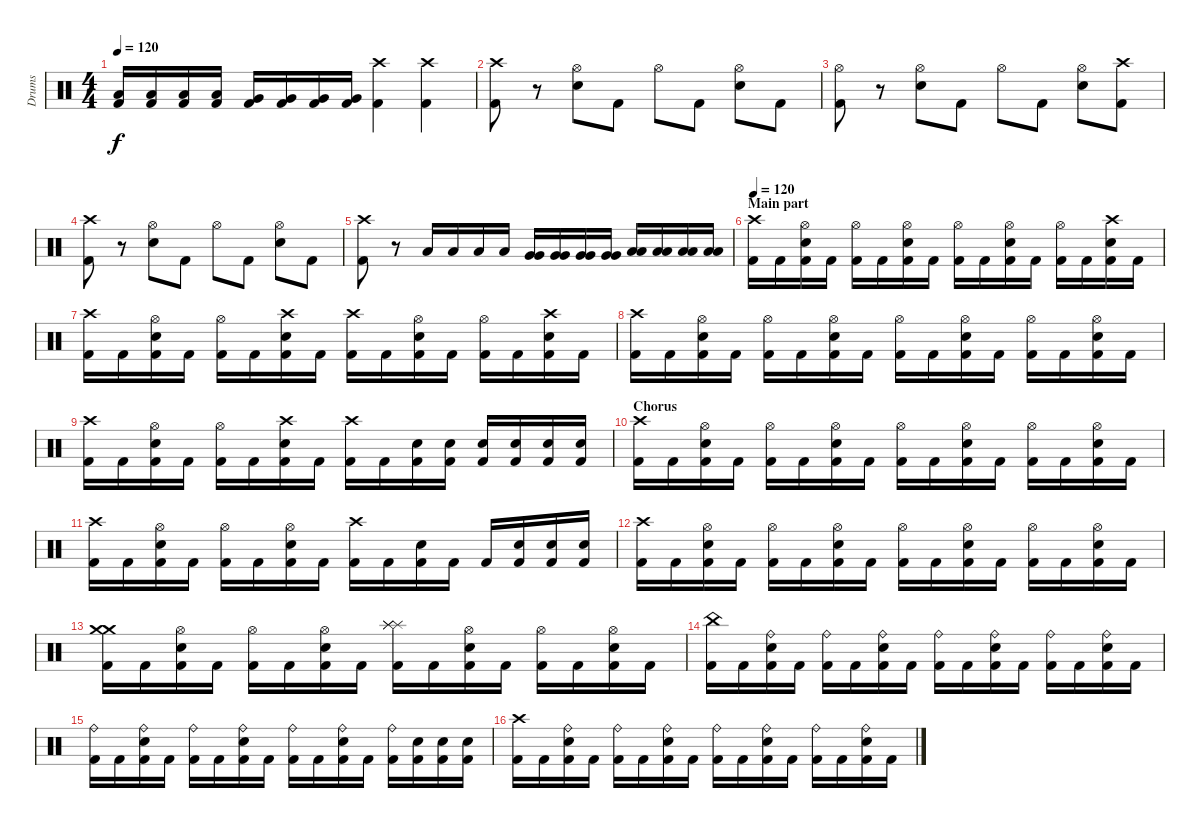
\track ("Drums" "Drums") {instrument percussion}
\staff {score}
\articulation defaults
\ts (4 4)
\tempo 120
\clef neutral
\ks c
("Low Tom (hit)" "Kick (hit) 2").16{dy f} ("Low Tom (hit)" "Kick (hit) 2").16 ("Low Tom (hit)" "Kick (hit) 2").16 ("Low Tom (hit)" "Kick (hit) 2").16 ("Very Low Tom (hit)" "Kick (hit) 2").16 ("Very Low Tom (hit)" "Kick (hit) 2").16 ("Very Low Tom (hit)" "Kick (hit) 2").16 ("Very Low Tom (hit)" "Kick (hit) 2").16 ("Crash high (hit)" "Kick (hit) 2").4 ("Crash high (hit)" "Kick (hit) 2").4 |
("Crash high (hit)" "Kick (hit) 2").8 r.8 ("Hi-Hat (open)" "Electric Snare (hit)").8 "Kick (hit) 2".8 "Hi-Hat (open)".8 "Kick (hit) 2".8 ("Hi-Hat (open)" "Electric Snare (hit)").8 "Kick (hit) 2".8 |
("Hi-Hat (open)" "Kick (hit) 2").8 r.8 ("Hi-Hat (open)" "Electric Snare (hit)").8 "Kick (hit) 2".8 "Hi-Hat (open)".8 "Kick (hit) 2".8 ("Hi-Hat (open)" "Electric Snare (hit)").8 ("Crash high (hit)" "Kick (hit) 2").8 |
("Crash high (hit)" "Kick (hit) 2").8 r.8 ("Hi-Hat (open)" "Electric Snare (hit)").8 "Kick (hit) 2".8 "Hi-Hat (open)".8 "Kick (hit) 2".8 ("Hi-Hat (open)" "Electric Snare (hit)").8 "Kick (hit) 2".8 |
("Crash high (hit)" "Kick (hit) 2").8 r.8 "Low Tom (hit)".16 "Low Tom (hit)".16 "Low Tom (hit)".16 "Low Tom (hit)".16 ("Very Low Tom (hit)" "Very Low Tom (hit)").16 ("Very Low Tom (hit)" "Very Low Tom (hit)").16 ("Very Low Tom (hit)" "Very Low Tom (hit)").16 ("Very Low Tom (hit)" "Very Low Tom (hit)").16 ("Low Floor Tom (hit)" "Low Floor Tom (hit)").16 ("Low Floor Tom (hit)" "Low Floor Tom (hit)").16 ("Low Floor Tom (hit)" "Low Floor Tom (hit)").16 ("Low Floor Tom (hit)" "Low Floor Tom (hit)").16 |
\section ("" "Main part")
\tempo 120
("Crash high (hit)" "Kick (hit) 2").16 "Kick (hit) 2".16 ("Hi-Hat (open)" "Kick (hit) 2" "Electric Snare (hit)").16 "Kick (hit) 2".16 ("Hi-Hat (open)" "Kick (hit) 2").16 "Kick (hit) 2".16 ("Hi-Hat (open)" "Kick (hit) 2" "Electric Snare (hit)").16 "Kick (hit) 2".16 ("Hi-Hat (open)" "Kick (hit) 2").16 "Kick (hit) 2".16 ("Hi-Hat (open)" "Kick (hit) 2" "Electric Snare (hit)").16 "Kick (hit) 2".16 ("Hi-Hat (open)" "Kick (hit) 2").16 "Kick (hit) 2".16 ("Crash high (hit)" "Kick (hit) 2" "Electric Snare (hit)").16 "Kick (hit) 2".16 |
("Crash high (hit)" "Kick (hit) 2").16 "Kick (hit) 2".16 ("Hi-Hat (open)" "Kick (hit) 2" "Electric Snare (hit)").16 "Kick (hit) 2".16 ("Hi-Hat (open)" "Kick (hit) 2").16 "Kick (hit) 2".16 ("Crash high (hit)" "Kick (hit) 2" "Electric Snare (hit)").16 "Kick (hit) 2".16 ("Crash high (hit)" "Kick (hit) 2").16 "Kick (hit) 2".16 ("Hi-Hat (open)" "Kick (hit) 2" "Electric Snare (hit)").16 "Kick (hit) 2".16 ("Hi-Hat (open)" "Kick (hit) 2").16 "Kick (hit) 2".16 ("Crash high (hit)" "Kick (hit) 2" "Electric Snare (hit)").16 "Kick (hit) 2".16 |
("Crash high (hit)" "Kick (hit) 2").16 "Kick (hit) 2".16 ("Hi-Hat (open)" "Kick (hit) 2" "Electric Snare (hit)").16 "Kick (hit) 2".16 ("Hi-Hat (open)" "Kick (hit) 2").16 "Kick (hit) 2".16 ("Hi-Hat (open)" "Kick (hit) 2" "Electric Snare (hit)").16 "Kick (hit) 2".16 ("Hi-Hat (open)" "Kick (hit) 2").16 "Kick (hit) 2".16 ("Hi-Hat (open)" "Kick (hit) 2" "Electric Snare (hit)").16 "Kick (hit) 2".16 ("Hi-Hat (open)" "Kick (hit) 2").16 "Kick (hit) 2".16 ("Hi-Hat (open)" "Kick (hit) 2" "Electric Snare (hit)").16 "Kick (hit) 2".16 |
("Crash high (hit)" "Kick (hit) 2").16 "Kick (hit) 2".16 ("Hi-Hat (open)" "Kick (hit) 2" "Electric Snare (hit)").16 "Kick (hit) 2".16 ("Hi-Hat (open)" "Kick (hit) 2").16 "Kick (hit) 2".16 ("Crash high (hit)" "Kick (hit) 2" "Electric Snare (hit)").16 "Kick (hit) 2".16 ("Crash high (hit)" "Kick (hit) 2").16 "Kick (hit) 2".16 ("Kick (hit) 2" "Electric Snare (hit)").16 ("Kick (hit) 2" "Electric Snare (hit)").16 ("Kick (hit) 2" "Electric Snare (hit)").16 ("Kick (hit) 2" "Electric Snare (hit)").16 ("Kick (hit) 2" "Electric Snare (hit)").16 ("Kick (hit) 2" "Electric Snare (hit)").16 |
\section ("" "Chorus")
("Crash high (hit)" "Kick (hit) 2").16 "Kick (hit) 2".16 ("Hi-Hat (open)" "Kick (hit) 2" "Electric Snare (hit)").16 "Kick (hit) 2".16 ("Hi-Hat (open)" "Kick (hit) 2").16 "Kick (hit) 2".16 ("Hi-Hat (open)" "Kick (hit) 2" "Electric Snare (hit)").16 "Kick (hit) 2".16 ("Hi-Hat (open)" "Kick (hit) 2").16 "Kick (hit) 2".16 ("Hi-Hat (open)" "Kick (hit) 2" "Electric Snare (hit)").16 "Kick (hit) 2".16 ("Hi-Hat (open)" "Kick (hit) 2").16 "Kick (hit) 2".16 ("Hi-Hat (open)" "Kick (hit) 2" "Electric Snare (hit)").16 "Kick (hit) 2".16 |
("Crash high (hit)" "Kick (hit) 2").16 "Kick (hit) 2".16 ("Hi-Hat (open)" "Kick (hit) 2" "Electric Snare (hit)").16 "Kick (hit) 2".16 ("Hi-Hat (open)" "Kick (hit) 2").16 "Kick (hit) 2".16 ("Hi-Hat (open)" "Kick (hit) 2" "Electric Snare (hit)").16 "Kick (hit) 2".16 ("Crash high (hit)" "Kick (hit) 2").16 "Kick (hit) 2".16 ("Kick (hit) 2" "Electric Snare (hit)").16 "Kick (hit) 2".16 "Kick (hit) 2".16 ("Kick (hit) 2" "Electric Snare (hit)").16 ("Kick (hit) 2" "Electric Snare (hit)").16 ("Kick (hit) 2" "Electric Snare (hit)").16 |
("Crash high (hit)" "Kick (hit) 2").16 "Kick (hit) 2".16 ("Hi-Hat (open)" "Kick (hit) 2" "Electric Snare (hit)").16 "Kick (hit) 2".16 ("Hi-Hat (open)" "Kick (hit) 2").16 "Kick (hit) 2".16 ("Hi-Hat (open)" "Kick (hit) 2" "Electric Snare (hit)").16 "Kick (hit) 2".16 ("Hi-Hat (open)" "Kick (hit) 2").16 "Kick (hit) 2".16 ("Hi-Hat (open)" "Kick (hit) 2" "Electric Snare (hit)").16 "Kick (hit) 2".16 ("Hi-Hat (open)" "Kick (hit) 2").16 "Kick (hit) 2".16 ("Hi-Hat (open)" "Kick (hit) 2" "Electric Snare (hit)").16 "Kick (hit) 2".16 |
("Crash medium (hit)" "Crash medium (hit)" "Kick (hit) 2").16 "Kick (hit) 2".16 ("Hi-Hat (open)" "Kick (hit) 2" "Electric Snare (hit)").16 "Kick (hit) 2".16 ("Hi-Hat (open)" "Kick (hit) 2").16 "Kick (hit) 2".16 ("Hi-Hat (open)" "Kick (hit) 2" "Electric Snare (hit)").16 "Kick (hit) 2".16 ("Splash (hit)" "Splash (hit)" "Splash (hit)" "Kick (hit) 2").16 "Kick (hit) 2".16 ("Hi-Hat (open)" "Kick (hit) 2" "Electric Snare (hit)").16 "Kick (hit) 2".16 ("Hi-Hat (open)" "Kick (hit) 2").16 "Kick (hit) 2".16 ("Hi-Hat (open)" "Kick (hit) 2" "Electric Snare (hit)").16 "Kick (hit) 2".16 |
("China (hit)" "Kick (hit) 2").16 "Kick (hit) 2".16 ("Ride (bell)" "Kick (hit) 2" "Electric Snare (hit)").16 "Kick (hit) 2".16 ("Ride (bell)" "Kick (hit) 2").16 "Kick (hit) 2".16 ("Ride (bell)" "Kick (hit) 2" "Electric Snare (hit)").16 "Kick (hit) 2".16 ("Ride (bell)" "Kick (hit) 2").16 "Kick (hit) 2".16 ("Ride (bell)" "Kick (hit) 2" "Electric Snare (hit)").16 "Kick (hit) 2".16 ("Ride (bell)" "Kick (hit) 2").16 "Kick (hit) 2".16 ("Ride (bell)" "Kick (hit) 2" "Electric Snare (hit)").16 "Kick (hit) 2".16 |
("Ride (bell)" "Kick (hit) 2").16 "Kick (hit) 2".16 ("Ride (bell)" "Kick (hit) 2" "Electric Snare (hit)").16 "Kick (hit) 2".16 ("Ride (bell)" "Kick (hit) 2").16 "Kick (hit) 2".16 ("Ride (bell)" "Kick (hit) 2" "Electric Snare (hit)").16 "Kick (hit) 2".16 ("Ride (bell)" "Kick (hit) 2").16 "Kick (hit) 2".16 ("Ride (bell)" "Kick (hit) 2" "Electric Snare (hit)").16 "Kick (hit) 2".16 ("Ride (bell)" "Kick (hit) 2").16 ("Kick (hit) 2" "Electric Snare (hit)").16 ("Kick (hit) 2" "Electric Snare (hit)").16 ("Kick (hit) 2" "Electric Snare (hit)").16 |
("Crash high (hit)" "Kick (hit) 2").16 "Kick (hit) 2".16 ("Ride (bell)" "Kick (hit) 2" "Electric Snare (hit)").16 "Kick (hit) 2".16 ("Ride (bell)" "Kick (hit) 2").16 "Kick (hit) 2".16 ("Ride (bell)" "Kick (hit) 2" "Electric Snare (hit)").16 "Kick (hit) 2".16 ("Ride (bell)" "Kick (hit) 2").16 "Kick (hit) 2".16 ("Ride (bell)" "Kick (hit) 2" "Electric Snare (hit)").16 "Kick (hit) 2".16 ("Ride (bell)" "Kick (hit) 2").16 "Kick (hit) 2".16 ("Ride (bell)" "Kick (hit) 2" "Electric Snare (hit)").16 "Kick (hit) 2".16
